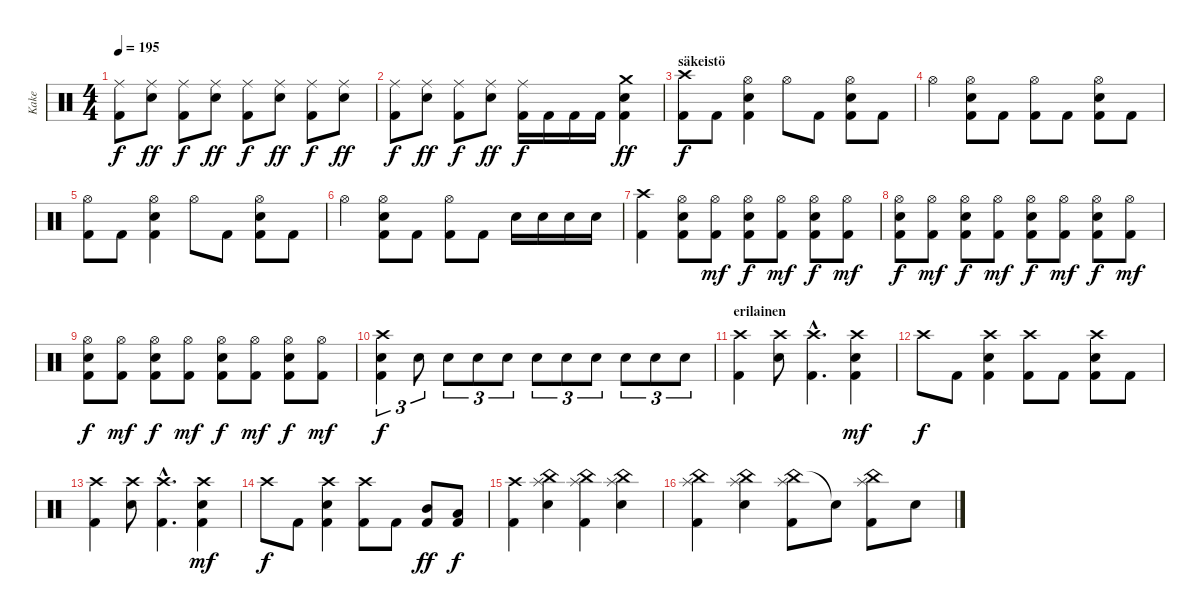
\track ("Kake " "Kake ") {instrument percussion}
\staff {score}
\articulation defaults
\ts (4 4)
\tempo 195
\clef neutral
\ks c
("Ride (middle)" "Kick (hit) 2").8{dy f} ("Ride (middle)" "Electric Snare (hit)").8{dy ff} ("Ride (middle)" "Kick (hit) 2").8{dy f} ("Ride (middle)" "Electric Snare (hit)").8{dy ff} ("Ride (middle)" "Kick (hit) 2").8{dy f} ("Ride (middle)" "Electric Snare (hit)").8{dy ff} ("Ride (middle)" "Kick (hit) 2").8{dy f} ("Ride (middle)" "Electric Snare (hit)").8{dy ff} |
("Ride (middle)" "Kick (hit) 2").8{dy f} ("Ride (middle)" "Electric Snare (hit)").8{dy ff} ("Ride (middle)" "Kick (hit) 2").8{dy f} ("Ride (middle)" "Electric Snare (hit)").8{dy ff} ("Ride (middle)" "Kick (hit) 2").16{dy f} "Kick (hit) 2".16 "Kick (hit) 2".16 "Kick (hit) 2".16 ("Crash medium (hit)" "Electric Snare (hit)" "Kick (hit) 2").4{dy ff} |
\section ("" "säkeistö")
("Crash high (hit)" "Kick (hit) 2").8{dy f} "Kick (hit) 2".8 ("Hi-Hat (open)" "Electric Snare (hit)" "Kick (hit) 2").4 "Hi-Hat (open)".8 "Kick (hit) 2".8 ("Hi-Hat (open)" "Electric Snare (hit)" "Kick (hit) 2").8 "Kick (hit) 2".8 |
"Hi-Hat (open)".4 ("Hi-Hat (open)" "Electric Snare (hit)" "Kick (hit) 2").8 "Kick (hit) 2".8 ("Hi-Hat (open)" "Kick (hit) 2").8 "Kick (hit) 2".8 ("Hi-Hat (open)" "Electric Snare (hit)" "Kick (hit) 2").8 "Kick (hit) 2".8 |
("Hi-Hat (open)" "Kick (hit) 2").8 "Kick (hit) 2".8 ("Hi-Hat (open)" "Electric Snare (hit)" "Kick (hit) 2").4 "Hi-Hat (open)".8 "Kick (hit) 2".8 ("Hi-Hat (open)" "Electric Snare (hit)" "Kick (hit) 2").8 "Kick (hit) 2".8 |
"Hi-Hat (open)".4 ("Hi-Hat (open)" "Electric Snare (hit)" "Kick (hit) 2").8 "Kick (hit) 2".8 ("Hi-Hat (open)" "Kick (hit) 2").8 "Kick (hit) 2".8 "Electric Snare (hit)".16 "Electric Snare (hit)".16 "Electric Snare (hit)".16 "Electric Snare (hit)".16 |
("Crash high (hit)" "Kick (hit) 2").4 ("Hi-Hat (open)" "Electric Snare (hit)" "Kick (hit) 2").8 ("Hi-Hat (open)" "Kick (hit) 2").8{dy mf} ("Hi-Hat (open)" "Electric Snare (hit)" "Kick (hit) 2").8{dy f} ("Hi-Hat (open)" "Kick (hit) 2").8{dy mf} ("Hi-Hat (open)" "Electric Snare (hit)" "Kick (hit) 2").8{dy f} ("Hi-Hat (open)" "Kick (hit) 2").8{dy mf} |
("Hi-Hat (open)" "Electric Snare (hit)" "Kick (hit) 2").8{dy f} ("Hi-Hat (open)" "Kick (hit) 2").8{dy mf} ("Hi-Hat (open)" "Electric Snare (hit)" "Kick (hit) 2").8{dy f} ("Hi-Hat (open)" "Kick (hit) 2").8{dy mf} ("Hi-Hat (open)" "Electric Snare (hit)" "Kick (hit) 2").8{dy f} ("Hi-Hat (open)" "Kick (hit) 2").8{dy mf} ("Hi-Hat (open)" "Electric Snare (hit)" "Kick (hit) 2").8{dy f} ("Hi-Hat (open)" "Kick (hit) 2").8{dy mf} |
("Hi-Hat (open)" "Electric Snare (hit)" "Kick (hit) 2").8{dy f} ("Hi-Hat (open)" "Kick (hit) 2").8{dy mf} ("Hi-Hat (open)" "Electric Snare (hit)" "Kick (hit) 2").8{dy f} ("Hi-Hat (open)" "Kick (hit) 2").8{dy mf} ("Hi-Hat (open)" "Electric Snare (hit)" "Kick (hit) 2").8{dy f} ("Hi-Hat (open)" "Kick (hit) 2").8{dy mf} ("Hi-Hat (open)" "Electric Snare (hit)" "Kick (hit) 2").8{dy f} ("Hi-Hat (open)" "Kick (hit) 2").8{dy mf} |
("Crash high (hit)" "Electric Snare (hit)" "Kick (hit) 2").4{tu (3 2) dy f} "Electric Snare (hit)".8{tu (3 2)} "Electric Snare (hit)".8{tu (3 2)} "Electric Snare (hit)".8{tu (3 2)} "Electric Snare (hit)".8{tu (3 2)} "Electric Snare (hit)".8{tu (3 2)} "Electric Snare (hit)".8{tu (3 2)} "Electric Snare (hit)".8{tu (3 2)} "Electric Snare (hit)".8{tu (3 2)} "Electric Snare (hit)".8{tu (3 2)} "Electric Snare (hit)".8{tu (3 2)} |
\section ("" "erilainen")
("Crash high (hit)" "Kick (hit) 2").4 ("Crash high (hit)" "Electric Snare (hit)").8 ("Crash high (hit)"{hac} "Kick (hit) 2"{hac}).4{d} ("Crash high (hit)" "Electric Snare (hit)" "Kick (hit) 2").4{dy mf} |
"Crash high (hit)".8{dy f} "Kick (hit) 2".8 ("Crash high (hit)" "Electric Snare (hit)" "Kick (hit) 2").4 ("Crash high (hit)" "Kick (hit) 2").8 "Kick (hit) 2".8 ("Crash high (hit)" "Electric Snare (hit)" "Kick (hit) 2").8 "Kick (hit) 2".8 |
("Crash high (hit)" "Kick (hit) 2").4 ("Crash high (hit)" "Electric Snare (hit)").8 ("Crash high (hit)"{hac} "Kick (hit) 2"{hac}).4{d} ("Crash high (hit)" "Electric Snare (hit)" "Kick (hit) 2").4{dy mf} |
"Crash high (hit)".8{dy f} "Kick (hit) 2".8 ("Crash high (hit)" "Electric Snare (hit)" "Kick (hit) 2").4 ("Crash high (hit)" "Kick (hit) 2").8 "Kick (hit) 2".8 ("Mid Tom (hit)" "Kick (hit) 2").8{dy ff} ("Low Tom (hit)" "Kick (hit) 2").8{dy f} |
("Crash high (hit)" "Kick (hit) 2").4 ("China (hit)" "Splash (hit)" "Electric Snare (hit)").4 ("China (hit)" "Splash (hit)" "Kick (hit) 2").4 ("China (hit)" "Splash (hit)" "Electric Snare (hit)").4 |
("China (hit)" "Splash (hit)" "Kick (hit) 2").4 ("China (hit)" "Splash (hit)" "Electric Snare (hit)").4 ("China (hit)" "Splash (hit)" "Kick (hit) 2").8 "Snare (hit)"{t}.8 ("China (hit)" "Splash (hit)" "Kick (hit) 2").8 "Electric Snare (hit)".8
